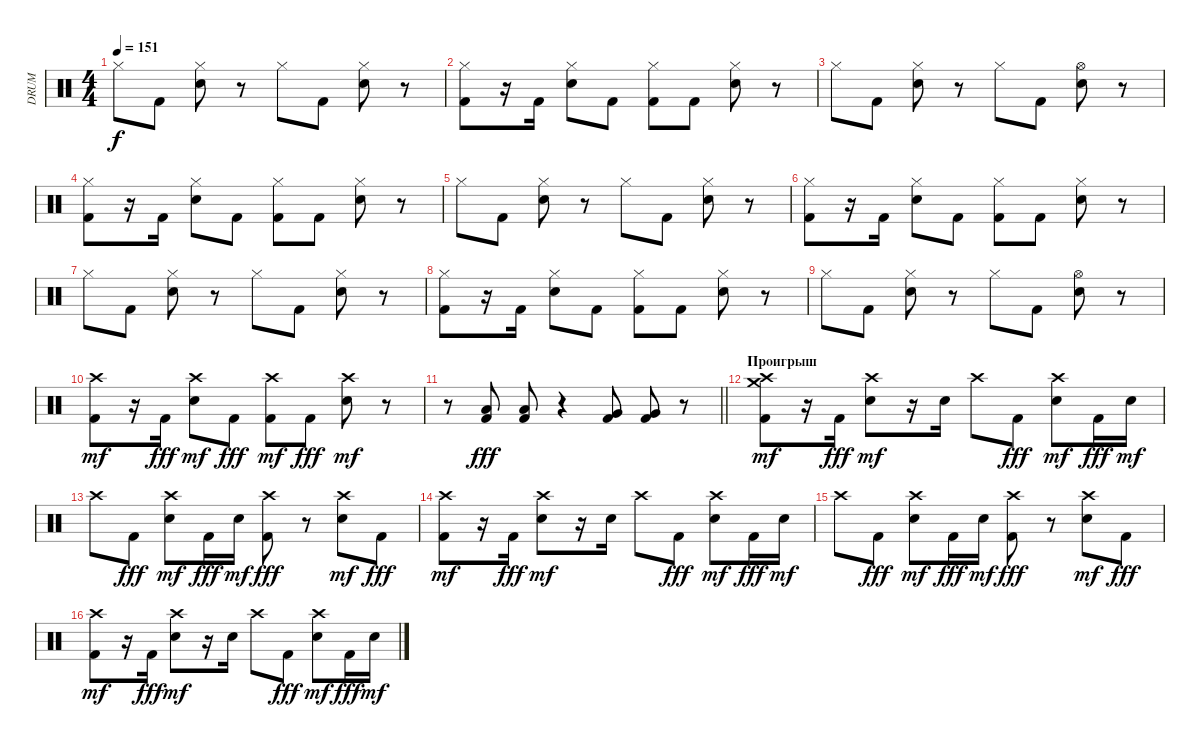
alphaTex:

\track ("DRUM" "DRUM") {instrument percussion}
\staff {score}
\articulation defaults
\ts (4 4)
\tempo 151
\clef neutral
\ks c "Hi-Hat (closed)".8{dy f} "Kick (hit) 2".8
("Snare (hit) 2" "Hi-Hat (closed)").8 r.8 "Hi-Hat (closed)".8 "Kick (hit) 2".8 ("Snare (hit) 2" "Hi-Hat (closed)").8 r.8 |
("Kick (hit) 2" "Hi-Hat (closed)").8 r.16 "Kick (hit) 2".16 ("Snare (hit) 2" "Hi-Hat (closed)").8 "Kick (hit) 2".8 ("Kick (hit) 2" "Hi-Hat (closed)").8 "Kick (hit) 2".8 ("Snare (hit) 2" "Hi-Hat (closed)").8 r.8 |
"Hi-Hat (closed)".8 "Kick (hit) 2".8 ("Snare (hit) 2" "Hi-Hat (closed)").8 r.8 "Hi-Hat (closed)".8 "Kick (hit) 2".8 ("Hi-Hat (open)" "Snare (hit) 2").8 r.8 |
("Kick (hit) 2" "Hi-Hat (closed)").8 r.16 "Kick (hit) 2".16 ("Snare (hit) 2" "Hi-Hat (closed)").8 "Kick (hit) 2".8 ("Kick (hit) 2" "Hi-Hat (closed)").8 "Kick (hit) 2".8 ("Snare (hit) 2" "Hi-Hat (closed)").8 r.8 |
"Hi-Hat (closed)".8 "Kick (hit) 2".8 ("Snare (hit) 2" "Hi-Hat (closed)").8 r.8 "Hi-Hat (closed)".8 "Kick (hit) 2".8 ("Snare (hit) 2" "Hi-Hat (closed)").8 r.8 |
("Kick (hit) 2" "Hi-Hat (closed)").8 r.16 "Kick (hit) 2".16 ("Snare (hit) 2" "Hi-Hat (closed)").8 "Kick (hit) 2".8 ("Kick (hit) 2" "Hi-Hat (closed)").8 "Kick (hit) 2".8 ("Snare (hit) 2" "Hi-Hat (closed)").8 r.8 |
"Hi-Hat (closed)".8 "Kick (hit) 2".8 ("Snare (hit) 2" "Hi-Hat (closed)").8 r.8 "Hi-Hat (closed)".8 "Kick (hit) 2".8 ("Snare (hit) 2" "Hi-Hat (closed)").8 r.8 |
("Kick (hit) 2" "Hi-Hat (closed)").8 r.16 "Kick (hit) 2".16 ("Snare (hit) 2" "Hi-Hat (closed)").8 "Kick (hit) 2".8 ("Kick (hit) 2" "Hi-Hat (closed)").8 "Kick (hit) 2".8 ("Snare (hit) 2" "Hi-Hat (closed)").8 r.8 |
"Hi-Hat (closed)".8 "Kick (hit) 2".8 ("Snare (hit) 2" "Hi-Hat (closed)").8 r.8 "Hi-Hat (closed)".8 "Kick (hit) 2".8 ("Hi-Hat (open)" "Snare (hit) 2").8 r.8 |
("Kick (hit) 2" "Crash high (hit)").8{dy mf} r.16 "Kick (hit) 2".16{dy fff} ("Electric Snare (hit)" "Crash high (hit)").8{dy mf} "Kick (hit) 2".8{dy fff} ("Kick (hit) 2" "Crash high (hit)").8{dy mf} "Kick (hit) 2".8{dy fff} ("Electric Snare (hit)" "Crash high (hit)").8{dy mf} r.8 |
\barLineRight lightlight
r.8 ("Low Floor Tom (hit)" "Kick (hit) 2").8{dy fff} ("Low Floor Tom (hit)" "Kick (hit) 2").8 r.4 ("Very Low Tom (hit)" "Kick (hit) 2").8 ("Kick (hit) 2" "Very Low Tom (hit)").8 r.8 |
\section ("" "Проигрыш")
("Kick (hit) 2" "Crash high (hit)" "Crash medium (hit)").8{dy mf} r.16 "Kick (hit) 2".16{dy fff} ("Electric Snare (hit)" "Crash high (hit)").8{dy mf} r.16 "Electric Snare (hit)".16 "Crash high (hit)".8 "Kick (hit) 2".8{dy fff} ("Electric Snare (hit)" "Crash high (hit)").8{dy mf} "Kick (hit) 2".16{dy fff} "Electric Snare (hit)".16{dy mf} |
"Crash high (hit)".8 "Kick (hit) 2".8{dy fff} ("Electric Snare (hit)" "Crash high (hit)").8{dy mf} "Kick (hit) 2".16{dy fff} "Electric Snare (hit)".16{dy mf} ("Crash high (hit)" "Kick (hit) 2").8{dy fff} r.8 ("Electric Snare (hit)" "Crash high (hit)").8{dy mf} "Kick (hit) 2".8{dy fff} |
("Kick (hit) 2" "Crash high (hit)").8{dy mf} r.16 "Kick (hit) 2".16{dy fff} ("Electric Snare (hit)" "Crash high (hit)").8{dy mf} r.16 "Electric Snare (hit)".16 "Crash high (hit)".8 "Kick (hit) 2".8{dy fff} ("Electric Snare (hit)" "Crash high (hit)").8{dy mf} "Kick (hit) 2".16{dy fff} "Electric Snare (hit)".16{dy mf} |
"Crash high (hit)".8 "Kick (hit) 2".8{dy fff} ("Electric Snare (hit)" "Crash high (hit)").8{dy mf} "Kick (hit) 2".16{dy fff} "Electric Snare (hit)".16{dy mf} ("Crash high (hit)" "Kick (hit) 2").8{dy fff} r.8 ("Electric Snare (hit)" "Crash high (hit)").8{dy mf} "Kick (hit) 2".8{dy fff} |
("Kick (hit) 2" "Crash high (hit)").8{dy mf} r.16 "Kick (hit) 2".16{dy fff} ("Electric Snare (hit)" "Crash high (hit)").8{dy mf} r.16 "Electric Snare (hit)".16 "Crash high (hit)".8 "Kick (hit) 2".8{dy fff} ("Electric Snare (hit)" "Crash high (hit)").8{dy mf} "Kick (hit) 2".16{dy fff} "Electric Snare (hit)".16{dy mf}
